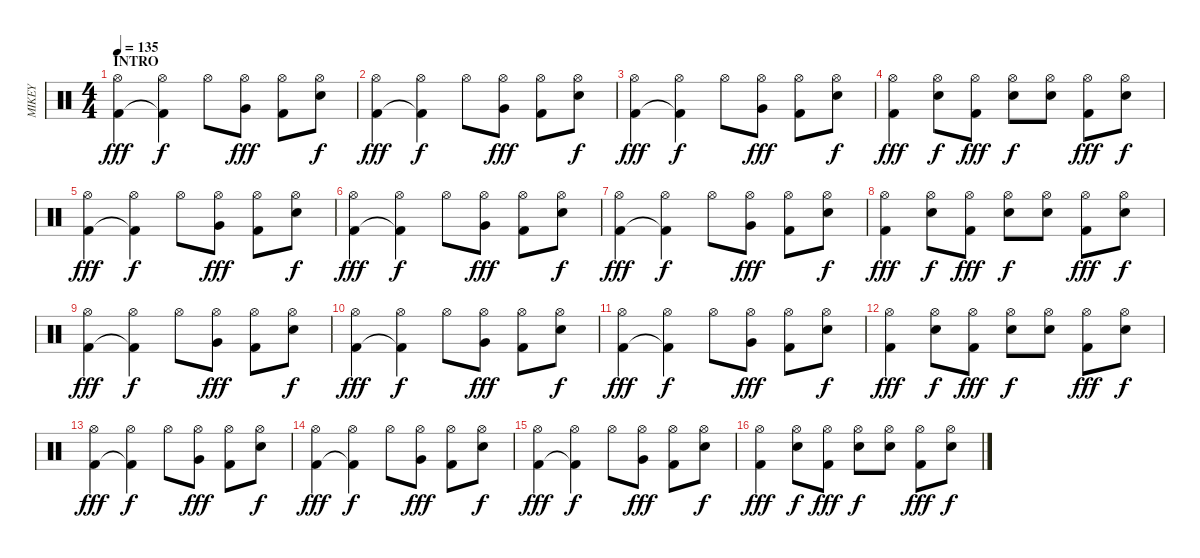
\track ("MIKEY" "MIKEY") {instrument percussion}
\staff {score}
\articulation defaults
\ts (4 4)
\section ("" "INTRO")
\tempo 135
\clef neutral
\ks c
("Hi-Hat (open)" "Kick (hit) 2").4{dy fff} ("Hi-Hat (open)" "Kick (hit) 2"{t}).4{dy f} "Hi-Hat (open)".8 ("Hi-Hat (open)" "Very Low Tom (hit)").8{dy fff} ("Hi-Hat (open)" "Kick (hit) 2").8 ("Hi-Hat (open)" "Electric Snare (hit)").8{dy f} |
("Hi-Hat (open)" "Kick (hit) 2").4{dy fff} ("Hi-Hat (open)" "Kick (hit) 2"{t}).4{dy f} "Hi-Hat (open)".8 ("Hi-Hat (open)" "Very Low Tom (hit)").8{dy fff} ("Hi-Hat (open)" "Kick (hit) 2").8 ("Hi-Hat (open)" "Electric Snare (hit)").8{dy f} |
("Hi-Hat (open)" "Kick (hit) 2").4{dy fff} ("Hi-Hat (open)" "Kick (hit) 2"{t}).4{dy f} "Hi-Hat (open)".8 ("Hi-Hat (open)" "Very Low Tom (hit)").8{dy fff} ("Hi-Hat (open)" "Kick (hit) 2").8 ("Hi-Hat (open)" "Electric Snare (hit)").8{dy f} |
("Hi-Hat (open)" "Kick (hit) 2").4{dy fff} ("Hi-Hat (open)" "Electric Snare (hit)").8{dy f} ("Hi-Hat (open)" "Kick (hit) 2").8{dy fff} ("Hi-Hat (open)" "Electric Snare (hit)").8{dy f} ("Hi-Hat (open)" "Electric Snare (hit)").8 ("Hi-Hat (open)" "Kick (hit) 2").8{dy fff} ("Hi-Hat (open)" "Electric Snare (hit)").8{dy f} |
("Hi-Hat (open)" "Kick (hit) 2").4{dy fff} ("Hi-Hat (open)" "Kick (hit) 2"{t}).4{dy f} "Hi-Hat (open)".8 ("Hi-Hat (open)" "Very Low Tom (hit)").8{dy fff} ("Hi-Hat (open)" "Kick (hit) 2").8 ("Hi-Hat (open)" "Electric Snare (hit)").8{dy f} |
("Hi-Hat (open)" "Kick (hit) 2").4{dy fff} ("Hi-Hat (open)" "Kick (hit) 2"{t}).4{dy f} "Hi-Hat (open)".8 ("Hi-Hat (open)" "Very Low Tom (hit)").8{dy fff} ("Hi-Hat (open)" "Kick (hit) 2").8 ("Hi-Hat (open)" "Electric Snare (hit)").8{dy f} |
("Hi-Hat (open)" "Kick (hit) 2").4{dy fff} ("Hi-Hat (open)" "Kick (hit) 2"{t}).4{dy f} "Hi-Hat (open)".8 ("Hi-Hat (open)" "Very Low Tom (hit)").8{dy fff} ("Hi-Hat (open)" "Kick (hit) 2").8 ("Hi-Hat (open)" "Electric Snare (hit)").8{dy f} |
("Hi-Hat (open)" "Kick (hit) 2").4{dy fff} ("Hi-Hat (open)" "Electric Snare (hit)").8{dy f} ("Hi-Hat (open)" "Kick (hit) 2").8{dy fff} ("Hi-Hat (open)" "Electric Snare (hit)").8{dy f} ("Hi-Hat (open)" "Electric Snare (hit)").8 ("Hi-Hat (open)" "Kick (hit) 2").8{dy fff} ("Hi-Hat (open)" "Electric Snare (hit)").8{dy f} |
("Hi-Hat (open)" "Kick (hit) 2").4{dy fff} ("Hi-Hat (open)" "Kick (hit) 2"{t}).4{dy f} "Hi-Hat (open)".8 ("Hi-Hat (open)" "Very Low Tom (hit)").8{dy fff} ("Hi-Hat (open)" "Kick (hit) 2").8 ("Hi-Hat (open)" "Electric Snare (hit)").8{dy f} |
("Hi-Hat (open)" "Kick (hit) 2").4{dy fff} ("Hi-Hat (open)" "Kick (hit) 2"{t}).4{dy f} "Hi-Hat (open)".8 ("Hi-Hat (open)" "Very Low Tom (hit)").8{dy fff} ("Hi-Hat (open)" "Kick (hit) 2").8 ("Hi-Hat (open)" "Electric Snare (hit)").8{dy f} |
("Hi-Hat (open)" "Kick (hit) 2").4{dy fff} ("Hi-Hat (open)" "Kick (hit) 2"{t}).4{dy f} "Hi-Hat (open)".8 ("Hi-Hat (open)" "Very Low Tom (hit)").8{dy fff} ("Hi-Hat (open)" "Kick (hit) 2").8 ("Hi-Hat (open)" "Electric Snare (hit)").8{dy f} |
("Hi-Hat (open)" "Kick (hit) 2").4{dy fff} ("Hi-Hat (open)" "Electric Snare (hit)").8{dy f} ("Hi-Hat (open)" "Kick (hit) 2").8{dy fff} ("Hi-Hat (open)" "Electric Snare (hit)").8{dy f} ("Hi-Hat (open)" "Electric Snare (hit)").8 ("Hi-Hat (open)" "Kick (hit) 2").8{dy fff} ("Hi-Hat (open)" "Electric Snare (hit)").8{dy f} |
("Hi-Hat (open)" "Kick (hit) 2").4{dy fff} ("Hi-Hat (open)" "Kick (hit) 2"{t}).4{dy f} "Hi-Hat (open)".8 ("Hi-Hat (open)" "Very Low Tom (hit)").8{dy fff} ("Hi-Hat (open)" "Kick (hit) 2").8 ("Hi-Hat (open)" "Electric Snare (hit)").8{dy f} |
("Hi-Hat (open)" "Kick (hit) 2").4{dy fff} ("Hi-Hat (open)" "Kick (hit) 2"{t}).4{dy f} "Hi-Hat (open)".8 ("Hi-Hat (open)" "Very Low Tom (hit)").8{dy fff} ("Hi-Hat (open)" "Kick (hit) 2").8 ("Hi-Hat (open)" "Electric Snare (hit)").8{dy f} |
("Hi-Hat (open)" "Kick (hit) 2").4{dy fff} ("Hi-Hat (open)" "Kick (hit) 2"{t}).4{dy f} "Hi-Hat (open)".8 ("Hi-Hat (open)" "Very Low Tom (hit)").8{dy fff} ("Hi-Hat (open)" "Kick (hit) 2").8 ("Hi-Hat (open)" "Electric Snare (hit)").8{dy f} |
("Hi-Hat (open)" "Kick (hit) 2").4{dy fff} ("Hi-Hat (open)" "Electric Snare (hit)").8{dy f} ("Hi-Hat (open)" "Kick (hit) 2").8{dy fff} ("Hi-Hat (open)" "Electric Snare (hit)").8{dy f} ("Hi-Hat (open)" "Electric Snare (hit)").8 ("Hi-Hat (open)" "Kick (hit) 2").8{dy fff} ("Hi-Hat (open)" "Electric Snare (hit)").8{dy f}
